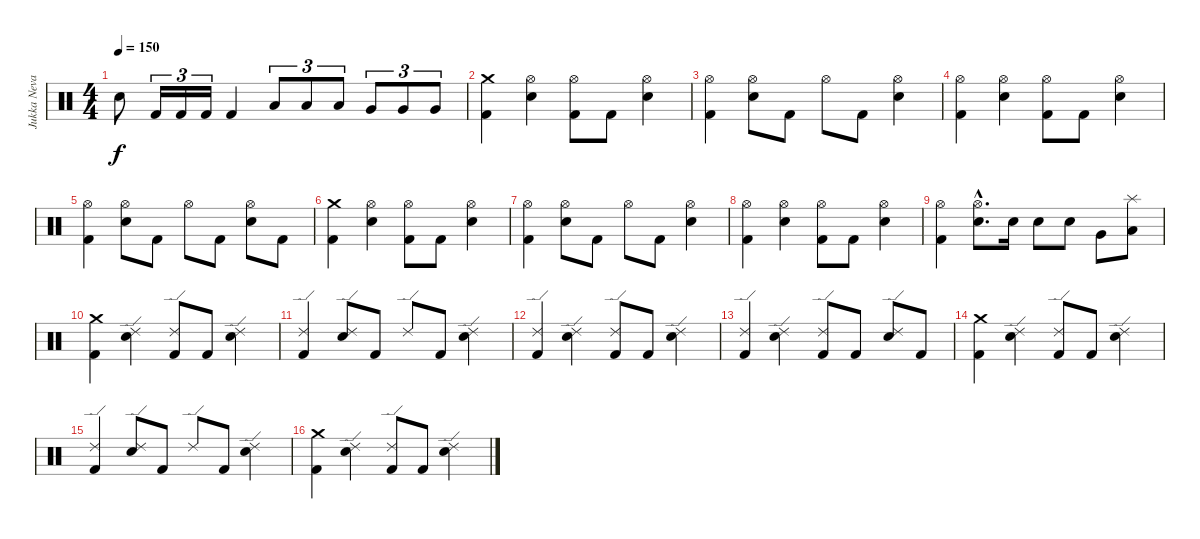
\track ("Jukka Nevalainen" "Jukka Neva") {instrument percussion}
\staff {score}
\articulation defaults
\ts (4 4)
\tempo 150
\clef neutral
\ks c "Snare (hit)"{t}.8{dy f} "Kick (hit) 2".16{tu (3 2)} "Kick (hit) 2".16{tu (3 2)} "Kick (hit) 2".16{tu (3 2)} "Kick (hit) 2".4 "Low Tom (hit)".8{tu (3 2)} "Low Tom (hit)".8{tu (3 2)} "Low Tom (hit)".8{tu (3 2)} "Very Low Tom (hit)".8{tu (3 2)} "Very Low Tom (hit)".8{tu (3 2)} "Very Low Tom (hit)".8{tu (3 2)}
|
("Crash medium (hit)" "Kick (hit) 2").4 ("Hi-Hat (open)" "Electric Snare (hit)").4 ("Hi-Hat (open)" "Kick (hit) 2").8 "Kick (hit) 2".8 ("Hi-Hat (open)" "Electric Snare (hit)").4 |
("Hi-Hat (open)" "Kick (hit) 2").4 ("Hi-Hat (open)" "Electric Snare (hit)").8 "Kick (hit) 2".8 "Hi-Hat (open)".8 "Kick (hit) 2".8 ("Hi-Hat (open)" "Electric Snare (hit)").4 |
("Hi-Hat (open)" "Kick (hit) 2").4 ("Hi-Hat (open)" "Electric Snare (hit)").4 ("Hi-Hat (open)" "Kick (hit) 2").8 "Kick (hit) 2".8 ("Hi-Hat (open)" "Electric Snare (hit)").4 |
("Hi-Hat (open)" "Kick (hit) 2").4 ("Hi-Hat (open)" "Electric Snare (hit)").8 "Kick (hit) 2".8 "Hi-Hat (open)".8 "Kick (hit) 2".8 ("Hi-Hat (open)" "Electric Snare (hit)").8 "Kick (hit) 2".8 |
("Crash medium (hit)" "Kick (hit) 2").4 ("Hi-Hat (open)" "Electric Snare (hit)").4 ("Hi-Hat (open)" "Kick (hit) 2").8 "Kick (hit) 2".8 ("Hi-Hat (open)" "Electric Snare (hit)").4 |
("Hi-Hat (open)" "Kick (hit) 2").4 ("Hi-Hat (open)" "Electric Snare (hit)").8 "Kick (hit) 2".8 "Hi-Hat (open)".8 "Kick (hit) 2".8 ("Hi-Hat (open)" "Electric Snare (hit)").4 |
("Hi-Hat (open)" "Kick (hit) 2").4 ("Hi-Hat (open)" "Electric Snare (hit)").4 ("Hi-Hat (open)" "Kick (hit) 2").8 "Kick (hit) 2".8 ("Hi-Hat (open)" "Electric Snare (hit)").4 |
("Hi-Hat (open)" "Kick (hit) 2").4 ("Hi-Hat (open)"{hac} "Electric Snare (hit)"{hac}).8{d} "Electric Snare (hit)".16 "Electric Snare (hit)".8 "Electric Snare (hit)".8 "Very Low Tom (hit)".8 ("Splash (hit)" "Low Floor Tom (hit)").8 |
("Crash medium (hit)" "Kick (hit) 2").4 ("Ride (edge) 2" "Electric Snare (hit)").4 ("Ride (edge) 2" "Kick (hit) 2").8 "Kick (hit) 2".8 ("Ride (edge) 2" "Electric Snare (hit)").4 |
("Ride (edge) 2" "Kick (hit) 2").4 ("Ride (edge) 2" "Electric Snare (hit)").8 "Kick (hit) 2".8 "Ride (edge) 2".8 "Kick (hit) 2".8 ("Ride (edge) 2" "Electric Snare (hit)").4 |
("Ride (edge) 2" "Kick (hit) 2").4 ("Ride (edge) 2" "Electric Snare (hit)").4 ("Ride (edge) 2" "Kick (hit) 2").8 "Kick (hit) 2".8 ("Ride (edge) 2" "Electric Snare (hit)").4 |
("Ride (edge) 2" "Kick (hit) 2").4 ("Ride (edge) 2" "Electric Snare (hit)").4 ("Ride (edge) 2" "Kick (hit) 2").8 "Kick (hit) 2".8 ("Ride (edge) 2" "Electric Snare (hit)").8 "Kick (hit) 2".8 |
("Crash medium (hit)" "Kick (hit) 2").4 ("Ride (edge) 2" "Electric Snare (hit)").4 ("Ride (edge) 2" "Kick (hit) 2").8 "Kick (hit) 2".8 ("Ride (edge) 2" "Electric Snare (hit)").4 |
("Ride (edge) 2" "Kick (hit) 2").4 ("Ride (edge) 2" "Electric Snare (hit)").8 "Kick (hit) 2".8 "Ride (edge) 2".8 "Kick (hit) 2".8 ("Ride (edge) 2" "Electric Snare (hit)").4 |
("Crash medium (hit)" "Kick (hit) 2").4 ("Ride (edge) 2" "Electric Snare (hit)").4 ("Ride (edge) 2" "Kick (hit) 2").8 "Kick (hit) 2".8 ("Ride (edge) 2" "Electric Snare (hit)").4
